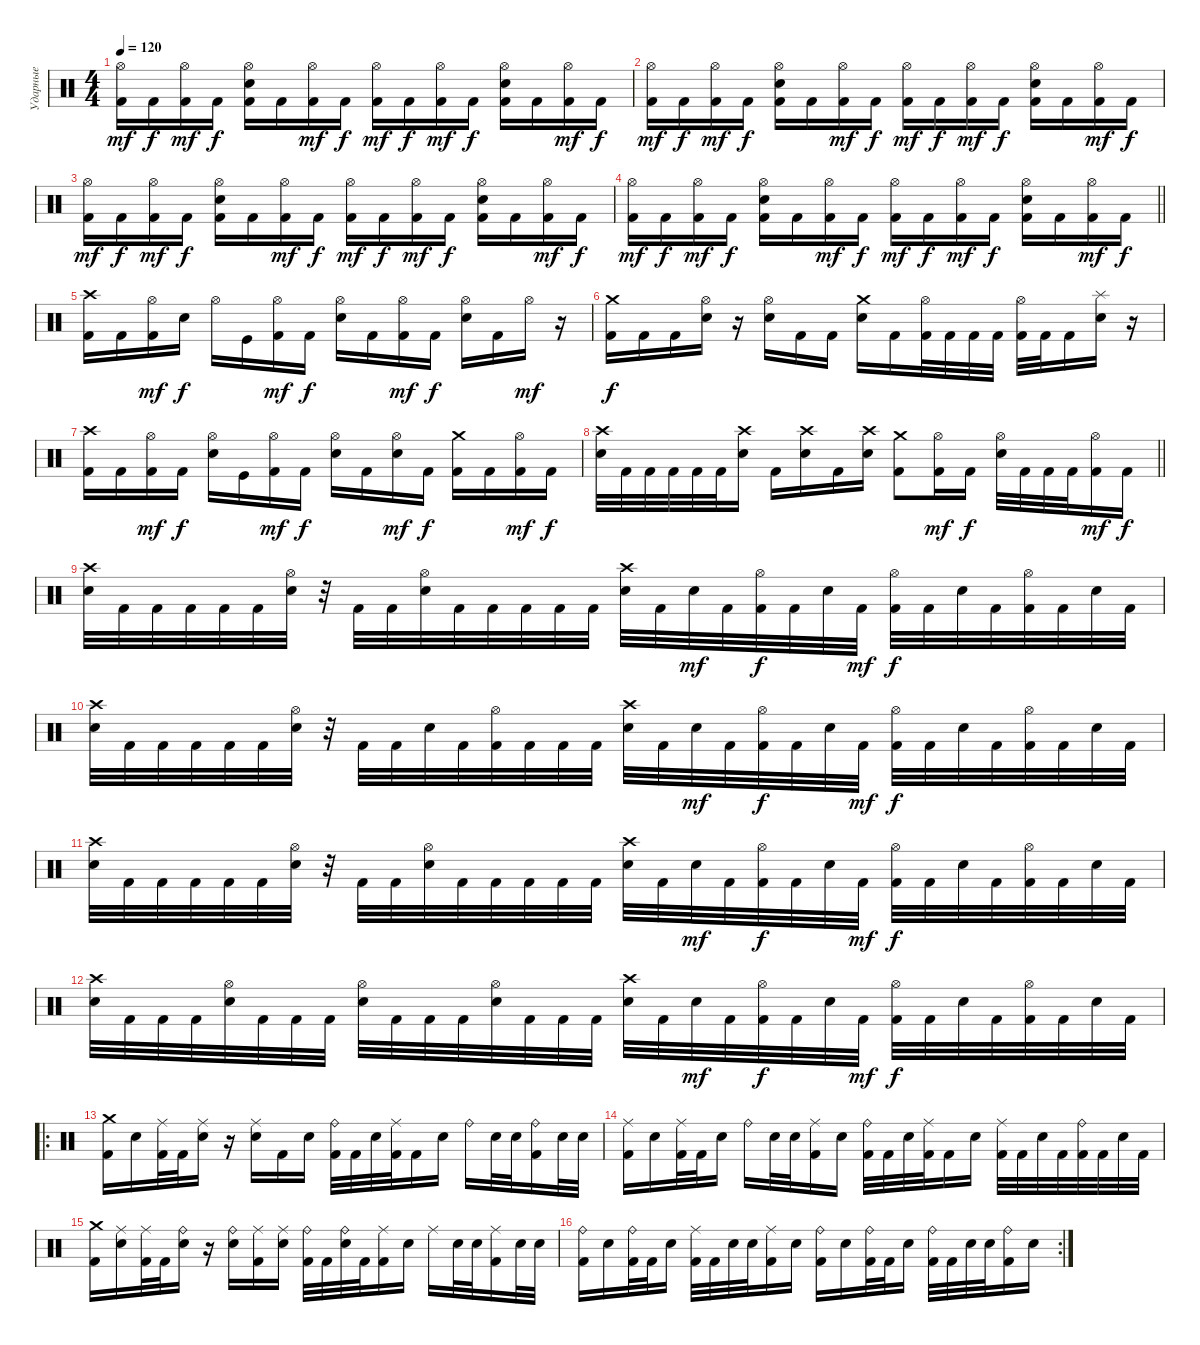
\track ("Ударные" "Ударные") {instrument percussion}
\staff {score}
\articulation defaults
\ts (4 4)
\tempo 120
\clef neutral
\ks c
("Hi-Hat (open)" "Kick (hit) 2").16{dy mf} "Kick (hit) 2".16{dy f} ("Hi-Hat (open)" "Kick (hit) 2").16{dy mf} "Kick (hit) 2".16{dy f} ("Hi-Hat (open)" "Electric Snare (hit)" "Kick (hit) 2").16 "Kick (hit) 2".16 ("Hi-Hat (open)" "Kick (hit) 2").16{dy mf} "Kick (hit) 2".16{dy f} ("Hi-Hat (open)" "Kick (hit) 2").16{dy mf} "Kick (hit) 2".16{dy f} ("Hi-Hat (open)" "Kick (hit) 2").16{dy mf} "Kick (hit) 2".16{dy f} ("Hi-Hat (open)" "Electric Snare (hit)" "Kick (hit) 2").16 "Kick (hit) 2".16 ("Hi-Hat (open)" "Kick (hit) 2").16{dy mf} "Kick (hit) 2".16{dy f} |
("Hi-Hat (open)" "Kick (hit) 2").16{dy mf} "Kick (hit) 2".16{dy f} ("Hi-Hat (open)" "Kick (hit) 2").16{dy mf} "Kick (hit) 2".16{dy f} ("Hi-Hat (open)" "Electric Snare (hit)" "Kick (hit) 2").16 "Kick (hit) 2".16 ("Hi-Hat (open)" "Kick (hit) 2").16{dy mf} "Kick (hit) 2".16{dy f} ("Hi-Hat (open)" "Kick (hit) 2").16{dy mf} "Kick (hit) 2".16{dy f} ("Hi-Hat (open)" "Kick (hit) 2").16{dy mf} "Kick (hit) 2".16{dy f} ("Hi-Hat (open)" "Electric Snare (hit)" "Kick (hit) 2").16 "Kick (hit) 2".16 ("Hi-Hat (open)" "Kick (hit) 2").16{dy mf} "Kick (hit) 2".16{dy f} |
("Hi-Hat (open)" "Kick (hit) 2").16{dy mf} "Kick (hit) 2".16{dy f} ("Hi-Hat (open)" "Kick (hit) 2").16{dy mf} "Kick (hit) 2".16{dy f} ("Hi-Hat (open)" "Electric Snare (hit)" "Kick (hit) 2").16 "Kick (hit) 2".16 ("Hi-Hat (open)" "Kick (hit) 2").16{dy mf} "Kick (hit) 2".16{dy f} ("Hi-Hat (open)" "Kick (hit) 2").16{dy mf} "Kick (hit) 2".16{dy f} ("Hi-Hat (open)" "Kick (hit) 2").16{dy mf} "Kick (hit) 2".16{dy f} ("Hi-Hat (open)" "Electric Snare (hit)" "Kick (hit) 2").16 "Kick (hit) 2".16 ("Hi-Hat (open)" "Kick (hit) 2").16{dy mf} "Kick (hit) 2".16{dy f} |
\barLineRight lightlight
("Hi-Hat (open)" "Kick (hit) 2").16{dy mf} "Kick (hit) 2".16{dy f} ("Hi-Hat (open)" "Kick (hit) 2").16{dy mf} "Kick (hit) 2".16{dy f} ("Hi-Hat (open)" "Electric Snare (hit)" "Kick (hit) 2").16 "Kick (hit) 2".16 ("Hi-Hat (open)" "Kick (hit) 2").16{dy mf} "Kick (hit) 2".16{dy f} ("Hi-Hat (open)" "Kick (hit) 2").16{dy mf} "Kick (hit) 2".16{dy f} ("Hi-Hat (open)" "Kick (hit) 2").16{dy mf} "Kick (hit) 2".16{dy f} ("Hi-Hat (open)" "Electric Snare (hit)" "Kick (hit) 2").16 "Kick (hit) 2".16 ("Hi-Hat (open)" "Kick (hit) 2").16{dy mf} "Kick (hit) 2".16{dy f} |
("Crash high (hit)" "Kick (hit) 2").16 "Kick (hit) 2".16 ("Hi-Hat (open)" "Kick (hit) 2").16{dy mf} "Electric Snare (hit)".16{dy f} "Hi-Hat (open)".16 "Kick (hit)".16 ("Hi-Hat (open)" "Kick (hit) 2").16{dy mf} "Kick (hit) 2".16{dy f} ("Hi-Hat (open)" "Electric Snare (hit)").16 "Kick (hit) 2".16 ("Hi-Hat (open)" "Kick (hit) 2").16{dy mf} "Kick (hit) 2".16{dy f} ("Hi-Hat (open)" "Electric Snare (hit)").16 "Kick (hit) 2".16 "Hi-Hat (open)".16{dy mf} r.16 |
("Crash medium (hit)" "Kick (hit) 2").16{dy f} "Kick (hit) 2".16 "Kick (hit) 2".16 ("Hi-Hat (open)" "Electric Snare (hit)").16 r.16 ("Hi-Hat (open)" "Electric Snare (hit)").16 "Kick (hit) 2".16 "Kick (hit) 2".16 ("Crash medium (hit)" "Electric Snare (hit)").16 "Kick (hit) 2".16 ("Hi-Hat (open)" "Kick (hit) 2").32 "Kick (hit) 2".32 "Kick (hit) 2".32 "Kick (hit) 2".32 ("Hi-Hat (open)" "Kick (hit) 2").32 "Kick (hit) 2".32 "Kick (hit) 2".16 ("Splash (hit)" "Electric Snare (hit)").16 r.16 |
("Crash high (hit)" "Kick (hit) 2").16 "Kick (hit) 2".16 ("Hi-Hat (open)" "Kick (hit) 2").16{dy mf} "Kick (hit) 2".16{dy f} ("Hi-Hat (open)" "Electric Snare (hit)").16 "Kick (hit)".16 ("Hi-Hat (open)" "Kick (hit) 2").16{dy mf} "Kick (hit) 2".16{dy f} ("Hi-Hat (open)" "Electric Snare (hit)").16 "Kick (hit) 2".16 ("Hi-Hat (open)" "Electric Snare (hit)").16{dy mf} "Kick (hit) 2".16{dy f} ("Crash medium (hit)" "Kick (hit) 2").16 "Kick (hit) 2".16 ("Hi-Hat (open)" "Kick (hit) 2").16{dy mf} "Kick (hit) 2".16{dy f} |
\barLineRight lightlight
("Crash high (hit)" "Electric Snare (hit)").32 "Kick (hit) 2".32 "Kick (hit) 2".32 "Kick (hit) 2".32 "Kick (hit) 2".32 "Kick (hit) 2".32 ("Crash high (hit)" "Electric Snare (hit)").16 "Kick (hit) 2".16 ("Crash high (hit)" "Electric Snare (hit)").16 "Kick (hit) 2".16 ("Crash high (hit)" "Electric Snare (hit)").16 ("Crash medium (hit)" "Kick (hit) 2").8 ("Hi-Hat (open)" "Kick (hit) 2").16{dy mf} "Kick (hit) 2".16{dy f} ("Hi-Hat (open)" "Electric Snare (hit)").32 "Kick (hit) 2".32 "Kick (hit) 2".32 "Kick (hit) 2".32 ("Hi-Hat (open)" "Kick (hit) 2").16{dy mf} "Kick (hit) 2".16{dy f} |
("Crash high (hit)" "Electric Snare (hit)").32 "Kick (hit) 2".32 "Kick (hit) 2".32 "Kick (hit) 2".32 "Kick (hit) 2".32 "Kick (hit) 2".32 ("Hi-Hat (open)" "Electric Snare (hit)").32 r.32 "Kick (hit) 2".32 "Kick (hit) 2".32 ("Hi-Hat (open)" "Electric Snare (hit)").32 "Kick (hit) 2".32 "Kick (hit) 2".32 "Kick (hit) 2".32 "Kick (hit) 2".32 "Kick (hit) 2".32 ("Crash high (hit)" "Electric Snare (hit)").32 "Kick (hit) 2".32 "Electric Snare (hit)".32{dy mf} "Kick (hit) 2".32 ("Hi-Hat (open)" "Kick (hit) 2").32{dy f} "Kick (hit) 2".32 "Electric Snare (hit)".32 "Kick (hit) 2".32{dy mf} ("Hi-Hat (open)" "Kick (hit) 2").32{dy f} "Kick (hit) 2".32 "Electric Snare (hit)".32 "Kick (hit) 2".32 ("Hi-Hat (open)" "Kick (hit) 2").32 "Kick (hit) 2".32 "Electric Snare (hit)".32 "Kick (hit) 2".32 |
("Crash high (hit)" "Electric Snare (hit)").32 "Kick (hit) 2".32 "Kick (hit) 2".32 "Kick (hit) 2".32 "Kick (hit) 2".32 "Kick (hit) 2".32 ("Hi-Hat (open)" "Electric Snare (hit)").32 r.32 "Kick (hit) 2".32 "Kick (hit) 2".32 "Electric Snare (hit)".32 "Kick (hit) 2".32 ("Hi-Hat (open)" "Kick (hit) 2").32 "Kick (hit) 2".32 "Kick (hit) 2".32 "Kick (hit) 2".32 ("Crash high (hit)" "Electric Snare (hit)").32 "Kick (hit) 2".32 "Electric Snare (hit)".32{dy mf} "Kick (hit) 2".32 ("Hi-Hat (open)" "Kick (hit) 2").32{dy f} "Kick (hit) 2".32 "Electric Snare (hit)".32 "Kick (hit) 2".32{dy mf} ("Hi-Hat (open)" "Kick (hit) 2").32{dy f} "Kick (hit) 2".32 "Electric Snare (hit)".32 "Kick (hit) 2".32 ("Hi-Hat (open)" "Kick (hit) 2").32 "Kick (hit) 2".32 "Electric Snare (hit)".32 "Kick (hit) 2".32 |
("Crash high (hit)" "Electric Snare (hit)").32 "Kick (hit) 2".32 "Kick (hit) 2".32 "Kick (hit) 2".32 "Kick (hit) 2".32 "Kick (hit) 2".32 ("Hi-Hat (open)" "Electric Snare (hit)").32 r.32 "Kick (hit) 2".32 "Kick (hit) 2".32 ("Hi-Hat (open)" "Electric Snare (hit)").32 "Kick (hit) 2".32 "Kick (hit) 2".32 "Kick (hit) 2".32 "Kick (hit) 2".32 "Kick (hit) 2".32 ("Crash high (hit)" "Electric Snare (hit)").32 "Kick (hit) 2".32 "Electric Snare (hit)".32{dy mf} "Kick (hit) 2".32 ("Hi-Hat (open)" "Kick (hit) 2").32{dy f} "Kick (hit) 2".32 "Electric Snare (hit)".32 "Kick (hit) 2".32{dy mf} ("Hi-Hat (open)" "Kick (hit) 2").32{dy f} "Kick (hit) 2".32 "Electric Snare (hit)".32 "Kick (hit) 2".32 ("Hi-Hat (open)" "Kick (hit) 2").32 "Kick (hit) 2".32 "Electric Snare (hit)".32 "Kick (hit) 2".32 |
("Crash high (hit)" "Electric Snare (hit)").32 "Kick (hit) 2".32 "Kick (hit) 2".32 "Kick (hit) 2".32 ("Hi-Hat (open)" "Electric Snare (hit)").32 "Kick (hit) 2".32 "Kick (hit) 2".32 "Kick (hit) 2".32 ("Hi-Hat (open)" "Electric Snare (hit)").32 "Kick (hit) 2".32 "Kick (hit) 2".32 "Kick (hit) 2".32 ("Hi-Hat (open)" "Electric Snare (hit)").32 "Kick (hit) 2".32 "Kick (hit) 2".32 "Kick (hit) 2".32 ("Crash high (hit)" "Electric Snare (hit)").32 "Kick (hit) 2".32 "Electric Snare (hit)".32{dy mf} "Kick (hit) 2".32 ("Hi-Hat (open)" "Kick (hit) 2").32{dy f} "Kick (hit) 2".32 "Electric Snare (hit)".32 "Kick (hit) 2".32{dy mf} ("Hi-Hat (open)" "Kick (hit) 2").32{dy f} "Kick (hit) 2".32 "Electric Snare (hit)".32 "Kick (hit) 2".32 ("Hi-Hat (open)" "Kick (hit) 2").32 "Kick (hit) 2".32 "Electric Snare (hit)".32 "Kick (hit) 2".32 |
\ro
("Crash medium (hit)" "Kick (hit) 2").16 "Electric Snare (hit)".16 ("Ride (middle)" "Kick (hit) 2").32 "Kick (hit) 2".32 ("Ride (middle)" "Electric Snare (hit)").16 r.16 ("Ride (middle)" "Electric Snare (hit)").16 "Kick (hit) 2".16 "Electric Snare (hit)".16 ("Ride (bell)" "Kick (hit) 2").32 "Kick (hit) 2".32 "Electric Snare (hit)".32 ("Ride (middle)" "Kick (hit) 2").32 "Kick (hit) 2".16 "Electric Snare (hit)".16 "Ride (bell)".16 "Electric Snare (hit)".32 "Electric Snare (hit)".32 ("Ride (bell)" "Kick (hit) 2").16 "Electric Snare (hit)".32 "Electric Snare (hit)".32 |
("Ride (middle)" "Kick (hit) 2").16 "Electric Snare (hit)".16 ("Ride (middle)" "Kick (hit) 2").32 "Kick (hit) 2".32 "Electric Snare (hit)".16 "Ride (bell)".16 "Electric Snare (hit)".32 "Electric Snare (hit)".32 ("Ride (middle)" "Kick (hit) 2").16 "Electric Snare (hit)".16 ("Ride (bell)" "Kick (hit) 2").32 "Kick (hit) 2".32 "Electric Snare (hit)".32 ("Ride (middle)" "Kick (hit) 2").32 "Kick (hit) 2".16 "Electric Snare (hit)".16 ("Ride (middle)" "Kick (hit) 2").32 "Kick (hit) 2".32 "Electric Snare (hit)".32 "Kick (hit) 2".32 ("Ride (bell)" "Kick (hit) 2").32 "Kick (hit) 2".32 "Electric Snare (hit)".32 "Kick (hit) 2".32 |
("Crash medium (hit)" "Kick (hit) 2").16 ("Ride (middle)" "Electric Snare (hit)").16 ("Ride (middle)" "Kick (hit) 2").32 "Kick (hit) 2".32 ("Ride (bell)" "Electric Snare (hit)").16 r.16 ("Ride (bell)" "Electric Snare (hit)").16 ("Ride (middle)" "Kick (hit) 2").16 ("Ride (middle)" "Electric Snare (hit)").16 ("Ride (bell)" "Kick (hit) 2").32 "Kick (hit) 2".32 ("Ride (bell)" "Electric Snare (hit)").32 "Kick (hit) 2".32 ("Ride (middle)" "Kick (hit) 2").16 "Electric Snare (hit)".16 "Ride (middle)".16 "Electric Snare (hit)".32 "Electric Snare (hit)".32 ("Ride (middle)" "Kick (hit) 2").16 "Electric Snare (hit)".32 "Electric Snare (hit)".32 |
\rc 2
("Ride (bell)" "Kick (hit) 2").16 "Electric Snare (hit)".16 ("Ride (bell)" "Kick (hit) 2").32 "Kick (hit) 2".32 "Electric Snare (hit)".16 ("Ride (middle)" "Kick (hit) 2").32 "Kick (hit) 2".32 "Electric Snare (hit)".32 "Electric Snare (hit)".32 ("Ride (middle)" "Kick (hit) 2").16 "Electric Snare (hit)".16 ("Ride (bell)" "Kick (hit) 2").16 "Electric Snare (hit)".16 ("Ride (bell)" "Kick (hit) 2").32 "Kick (hit) 2".32 "Electric Snare (hit)".16 ("Ride (bell)" "Kick (hit) 2").32 "Kick (hit) 2".32 "Electric Snare (hit)".32 "Electric Snare (hit)".32 ("Ride (bell)" "Kick (hit) 2").16 "Electric Snare (hit)".16
